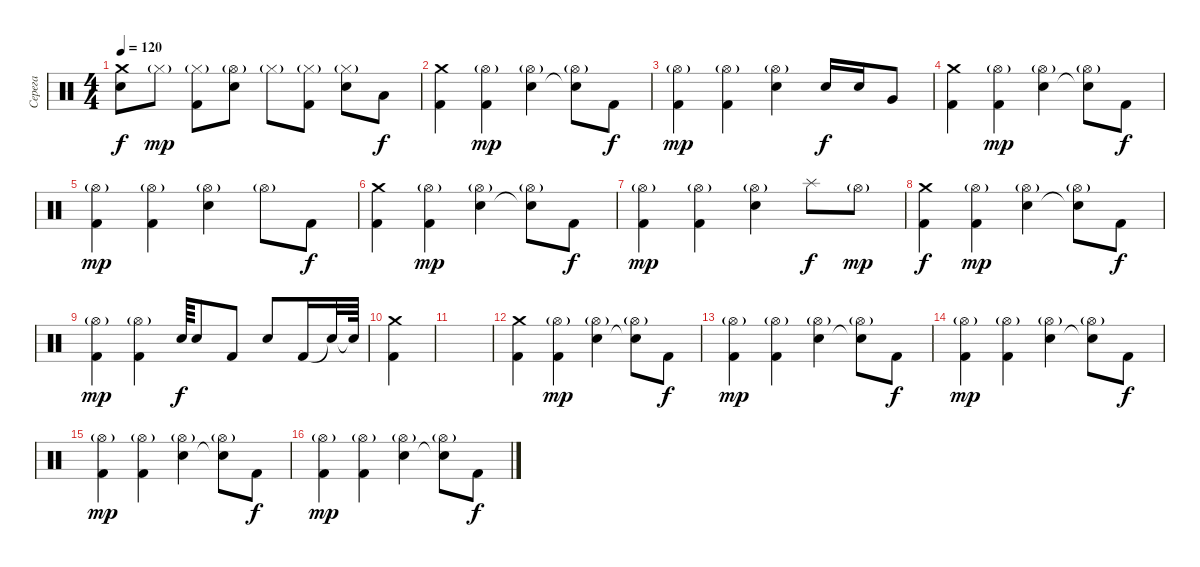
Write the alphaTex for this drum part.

\track ("Серега" "Серега") {instrument percussion}
\staff {score}
\articulation defaults
\ts (4 4)
\tempo 120
\clef neutral
\ks c
("Electric Snare (hit)" "Crash medium (hit)").8{dy f} "Hi-Hat (closed)"{g}.8{dy mp} ("Kick (hit) 2" "Hi-Hat (closed)"{g}).8 ("Electric Snare (hit)" "Hi-Hat (open)"{g}).8 "Hi-Hat (closed)"{g}.8 ("Kick (hit) 2" "Hi-Hat (closed)"{g}).8 ("Electric Snare (hit)" "Hi-Hat (closed)"{g}).8 "Low Tom (hit)".8{dy f} |
("Kick (hit) 2" "Crash medium (hit)").4 ("Kick (hit) 2" "Hi-Hat (open)"{g}).4{dy mp} ("Electric Snare (hit)" "Hi-Hat (open)"{g}).4 ("Snare (hit)"{t} "Hi-Hat (open)"{g}).8 "Kick (hit) 2".8{dy f} |
("Kick (hit) 2" "Hi-Hat (open)"{g}).4{dy mp} ("Kick (hit) 2" "Hi-Hat (open)"{g}).4 ("Electric Snare (hit)" "Hi-Hat (open)"{g}).4 "Electric Snare (hit)".16{dy f} "Electric Snare (hit)".16 "Very Low Tom (hit)".8 |
("Kick (hit) 2" "Crash medium (hit)").4 ("Kick (hit) 2" "Hi-Hat (open)"{g}).4{dy mp} ("Electric Snare (hit)" "Hi-Hat (open)"{g}).4 ("Snare (hit)"{t} "Hi-Hat (open)"{g}).8 "Kick (hit) 2".8{dy f} |
("Kick (hit) 2" "Hi-Hat (open)"{g}).4{dy mp} ("Kick (hit) 2" "Hi-Hat (open)"{g}).4 ("Electric Snare (hit)" "Hi-Hat (open)"{g}).4 "Hi-Hat (open)"{g}.8 "Kick (hit) 2".8{dy f} |
("Kick (hit) 2" "Crash medium (hit)").4 ("Kick (hit) 2" "Hi-Hat (open)"{g}).4{dy mp} ("Electric Snare (hit)" "Hi-Hat (open)"{g}).4 ("Snare (hit)"{t} "Hi-Hat (open)"{g}).8 "Kick (hit) 2".8{dy f} |
("Kick (hit) 2" "Hi-Hat (open)"{g}).4{dy mp} ("Kick (hit) 2" "Hi-Hat (open)"{g}).4 ("Electric Snare (hit)" "Hi-Hat (open)"{g}).4 "Splash (hit)".8{dy f} "Hi-Hat (open)"{g}.8{dy mp} |
("Kick (hit) 2" "Crash medium (hit)").4{dy f} ("Kick (hit) 2" "Hi-Hat (open)"{g}).4{dy mp} ("Electric Snare (hit)" "Hi-Hat (open)"{g}).4 ("Snare (hit)"{t} "Hi-Hat (open)"{g}).8 "Kick (hit) 2".8{dy f} |
("Kick (hit) 2" "Hi-Hat (open)"{g}).4{dy mp} ("Kick (hit) 2" "Hi-Hat (open)"{g}).4 "Electric Snare (hit)".64{dy f} "Electric Snare (hit)".8 "Kick (hit) 2".8 "Electric Snare (hit)".8 "Kick (hit) 2".16 "Snare (hit)"{t}.32 "Snare (hit)"{t}.64 |
("Kick (hit) 2" "Crash medium (hit)").4 |
|
("Kick (hit) 2" "Crash medium (hit)").4 ("Kick (hit) 2" "Hi-Hat (open)"{g}).4{dy mp} ("Electric Snare (hit)" "Hi-Hat (open)"{g}).4 ("Snare (hit)"{t} "Hi-Hat (open)"{g}).8 "Kick (hit) 2".8{dy f} |
("Kick (hit) 2" "Hi-Hat (open)"{g}).4{dy mp} ("Kick (hit) 2" "Hi-Hat (open)"{g}).4 ("Electric Snare (hit)" "Hi-Hat (open)"{g}).4 ("Snare (hit)"{t} "Hi-Hat (open)"{g}).8 "Kick (hit) 2".8{dy f} |
("Kick (hit) 2" "Hi-Hat (open)"{g}).4{dy mp} ("Kick (hit) 2" "Hi-Hat (open)"{g}).4 ("Electric Snare (hit)" "Hi-Hat (open)"{g}).4 ("Snare (hit)"{t} "Hi-Hat (open)"{g}).8 "Kick (hit) 2".8{dy f} |
("Kick (hit) 2" "Hi-Hat (open)"{g}).4{dy mp} ("Kick (hit) 2" "Hi-Hat (open)"{g}).4 ("Electric Snare (hit)" "Hi-Hat (open)"{g}).4 ("Snare (hit)"{t} "Hi-Hat (open)"{g}).8 "Kick (hit) 2".8{dy f} |
("Kick (hit) 2" "Hi-Hat (open)"{g}).4{dy mp} ("Kick (hit) 2" "Hi-Hat (open)"{g}).4 ("Electric Snare (hit)" "Hi-Hat (open)"{g}).4 ("Snare (hit)"{t} "Hi-Hat (open)"{g}).8 "Kick (hit) 2".8{dy f}
